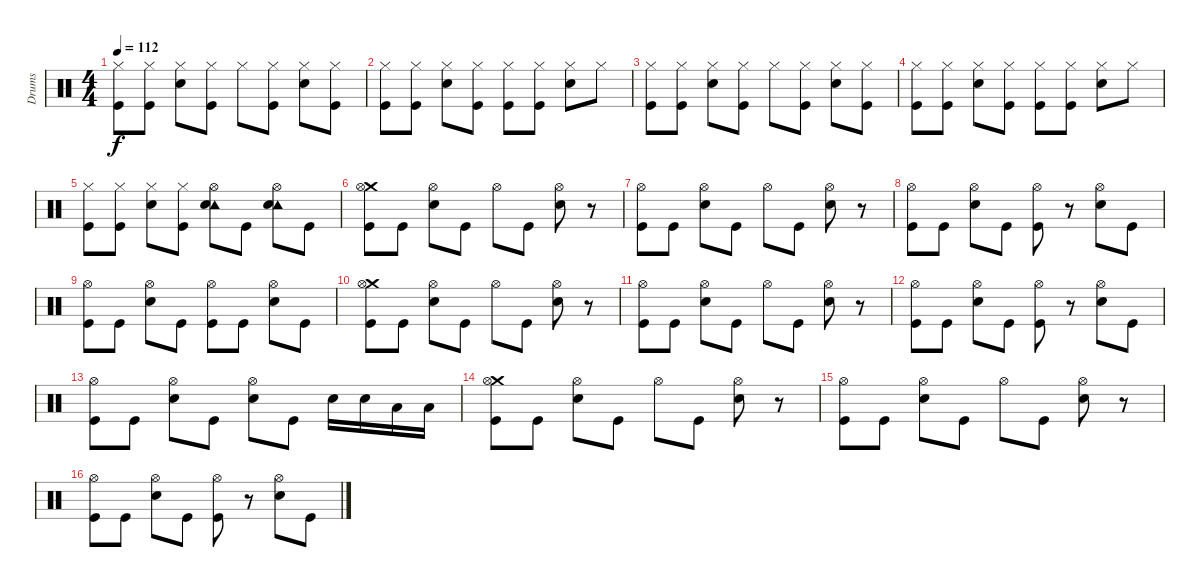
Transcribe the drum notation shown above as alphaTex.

\track ("Drums" "Drums") {instrument percussion}
\staff {score}
\articulation defaults
\ts (4 4)
\tempo 112
\clef neutral
\ks c
("Hi-Hat (closed)" "Kick (hit)").8{dy f} ("Hi-Hat (closed)" "Kick (hit)").8 ("Hi-Hat (closed)" "Snare (hit) 2").8 ("Hi-Hat (closed)" "Kick (hit)").8 "Hi-Hat (closed)".8 ("Hi-Hat (closed)" "Kick (hit)").8 ("Hi-Hat (closed)" "Snare (hit) 2").8 ("Hi-Hat (closed)" "Kick (hit)").8 |
("Hi-Hat (closed)" "Kick (hit)").8 ("Hi-Hat (closed)" "Kick (hit)").8 ("Hi-Hat (closed)" "Snare (hit) 2").8 ("Hi-Hat (closed)" "Kick (hit)").8 ("Hi-Hat (closed)" "Kick (hit)").8 ("Hi-Hat (closed)" "Kick (hit)").8 ("Hi-Hat (closed)" "Snare (hit) 2").8 "Hi-Hat (closed)".8 |
("Hi-Hat (closed)" "Kick (hit)").8 ("Hi-Hat (closed)" "Kick (hit)").8 ("Hi-Hat (closed)" "Snare (hit) 2").8 ("Hi-Hat (closed)" "Kick (hit)").8 "Hi-Hat (closed)".8 ("Hi-Hat (closed)" "Kick (hit)").8 ("Hi-Hat (closed)" "Snare (hit) 2").8 ("Hi-Hat (closed)" "Kick (hit)").8 |
("Hi-Hat (closed)" "Kick (hit)").8 ("Hi-Hat (closed)" "Kick (hit)").8 ("Hi-Hat (closed)" "Snare (hit) 2").8 ("Hi-Hat (closed)" "Kick (hit)").8 ("Hi-Hat (closed)" "Kick (hit)").8 ("Hi-Hat (closed)" "Kick (hit)").8 ("Hi-Hat (closed)" "Snare (hit) 2").8 "Hi-Hat (closed)".8 |
("Hi-Hat (closed)" "Kick (hit)").8 ("Hi-Hat (closed)" "Kick (hit)").8 ("Hi-Hat (closed)" "Snare (hit) 2").8 ("Hi-Hat (closed)" "Kick (hit)").8 ("Tambourine (hit)" "Hi-Hat (open)" "Snare (hit) 2").8 "Kick (hit)".8 ("Tambourine (hit)" "Hi-Hat (open)" "Snare (hit) 2").8 "Kick (hit)".8 |
("Crash medium (hit)" "Hi-Hat (open)" "Kick (hit)").8 "Kick (hit)".8 ("Hi-Hat (open)" "Snare (hit) 2").8 "Kick (hit)".8 "Hi-Hat (open)".8 "Kick (hit)".8 ("Hi-Hat (open)" "Snare (hit) 2").8 r.8 |
("Hi-Hat (open)" "Kick (hit)").8 "Kick (hit)".8 ("Hi-Hat (open)" "Snare (hit) 2").8 "Kick (hit)".8 "Hi-Hat (open)".8 "Kick (hit)".8 ("Hi-Hat (open)" "Snare (hit) 2").8 r.8 |
("Hi-Hat (open)" "Kick (hit)").8 "Kick (hit)".8 ("Hi-Hat (open)" "Snare (hit) 2").8 "Kick (hit)".8 ("Hi-Hat (open)" "Kick (hit)").8 r.8 ("Hi-Hat (open)" "Snare (hit) 2").8 "Kick (hit)".8 |
("Hi-Hat (open)" "Kick (hit)").8 "Kick (hit)".8 ("Hi-Hat (open)" "Snare (hit) 2").8 "Kick (hit)".8 ("Hi-Hat (open)" "Kick (hit)").8 "Kick (hit)".8 ("Hi-Hat (open)" "Snare (hit) 2").8 "Kick (hit)".8 |
("Crash medium (hit)" "Hi-Hat (open)" "Kick (hit)").8 "Kick (hit)".8 ("Hi-Hat (open)" "Snare (hit) 2").8 "Kick (hit)".8 "Hi-Hat (open)".8 "Kick (hit)".8 ("Hi-Hat (open)" "Snare (hit) 2").8 r.8 |
("Hi-Hat (open)" "Kick (hit)").8 "Kick (hit)".8 ("Hi-Hat (open)" "Snare (hit) 2").8 "Kick (hit)".8 "Hi-Hat (open)".8 "Kick (hit)".8 ("Hi-Hat (open)" "Snare (hit) 2").8 r.8 |
("Hi-Hat (open)" "Kick (hit)").8 "Kick (hit)".8 ("Hi-Hat (open)" "Snare (hit) 2").8 "Kick (hit)".8 ("Hi-Hat (open)" "Kick (hit)").8 r.8 ("Hi-Hat (open)" "Snare (hit) 2").8 "Kick (hit)".8 |
("Hi-Hat (open)" "Kick (hit)").8 "Kick (hit)".8 ("Hi-Hat (open)" "Snare (hit) 2").8 "Kick (hit)".8 ("Hi-Hat (open)" "Snare (hit) 2").8 "Kick (hit)".8 "Snare (hit) 2".16 "Snare (hit) 2".16 "Low Floor Tom (hit)".16 "Low Floor Tom (hit)".16 |
("Crash medium (hit)" "Hi-Hat (open)" "Kick (hit)").8 "Kick (hit)".8 ("Hi-Hat (open)" "Snare (hit) 2").8 "Kick (hit)".8 "Hi-Hat (open)".8 "Kick (hit)".8 ("Hi-Hat (open)" "Snare (hit) 2").8 r.8 |
("Hi-Hat (open)" "Kick (hit)").8 "Kick (hit)".8 ("Hi-Hat (open)" "Snare (hit) 2").8 "Kick (hit)".8 "Hi-Hat (open)".8 "Kick (hit)".8 ("Hi-Hat (open)" "Snare (hit) 2").8 r.8 |
("Hi-Hat (open)" "Kick (hit)").8 "Kick (hit)".8 ("Hi-Hat (open)" "Snare (hit) 2").8 "Kick (hit)".8 ("Hi-Hat (open)" "Kick (hit)").8 r.8 ("Hi-Hat (open)" "Snare (hit) 2").8 "Kick (hit)".8
